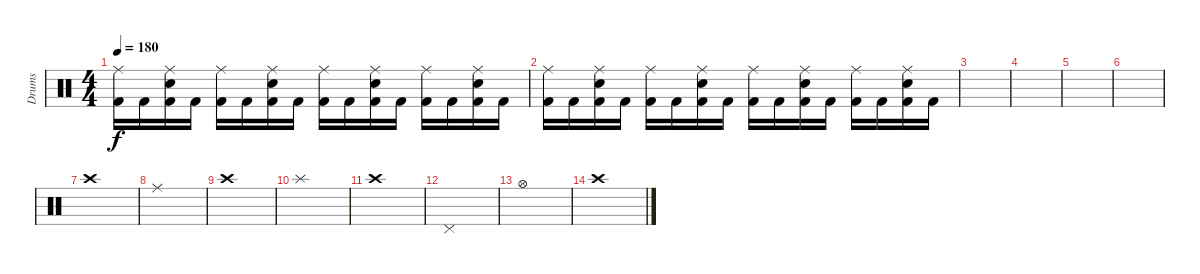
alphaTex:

\track ("Drums" "Drums") {instrument percussion}
\staff {score}
\articulation defaults
\ts (4 4)
\tempo 180
\clef neutral
\ks c
("Ride (middle)" "Kick (hit) 2").16{dy f} "Kick (hit) 2".16 ("Ride (middle)" "Snare (hit) 2" "Kick (hit) 2").16 "Kick (hit) 2".16 ("Ride (middle)" "Kick (hit) 2").16 "Kick (hit) 2".16 ("Ride (middle)" "Snare (hit) 2" "Kick (hit) 2").16 "Kick (hit) 2".16 ("Ride (middle)" "Kick (hit) 2").16 "Kick (hit) 2".16 ("Ride (middle)" "Snare (hit) 2" "Kick (hit) 2").16 "Kick (hit) 2".16 ("Ride (middle)" "Kick (hit) 2").16 "Kick (hit) 2".16 ("Ride (middle)" "Snare (hit) 2" "Kick (hit) 2").16 "Kick (hit) 2".16 |
("Ride (middle)" "Kick (hit) 2").16 "Kick (hit) 2".16 ("Ride (middle)" "Snare (hit) 2" "Kick (hit) 2").16 "Kick (hit) 2".16 ("Ride (middle)" "Kick (hit) 2").16 "Kick (hit) 2".16 ("Ride (middle)" "Snare (hit) 2" "Kick (hit) 2").16 "Kick (hit) 2".16 ("Ride (middle)" "Kick (hit) 2").16 "Kick (hit) 2".16 ("Ride (middle)" "Snare (hit) 2" "Kick (hit) 2").16 "Kick (hit) 2".16 ("Ride (middle)" "Kick (hit) 2").16 "Kick (hit) 2".16 ("Ride (middle)" "Snare (hit) 2" "Kick (hit) 2").16 "Kick (hit) 2".16 |
|
|
|
|
"Crash high (hit)".1 |
"Ride (middle)".1 |
"Crash high (hit)".1 |
"Splash (hit)".1 |
"Crash high (hit)".1 |
"Pedal Hi-Hat (hit)".1 |
"Hi-Hat (open)".1 |
"Crash high (hit)".1
